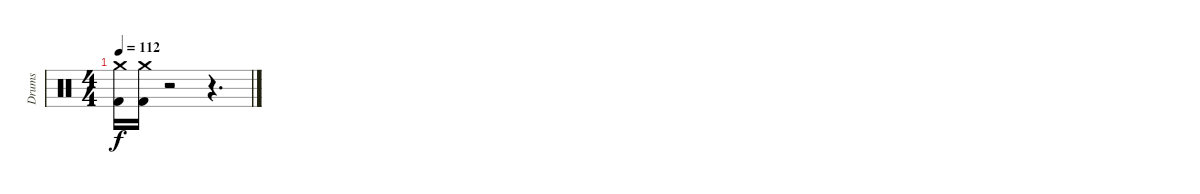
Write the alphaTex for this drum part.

\track ("Drums" "Drums") {instrument percussion}
\staff {score}
\articulation defaults
\ts (4 4)
\tempo 112
\clef neutral
\ks c
("Crash medium (hit)" "Kick (hit) 2").16{dy f} ("Crash medium (hit)" "Kick (hit) 2").16 r.2 r.4{d}
